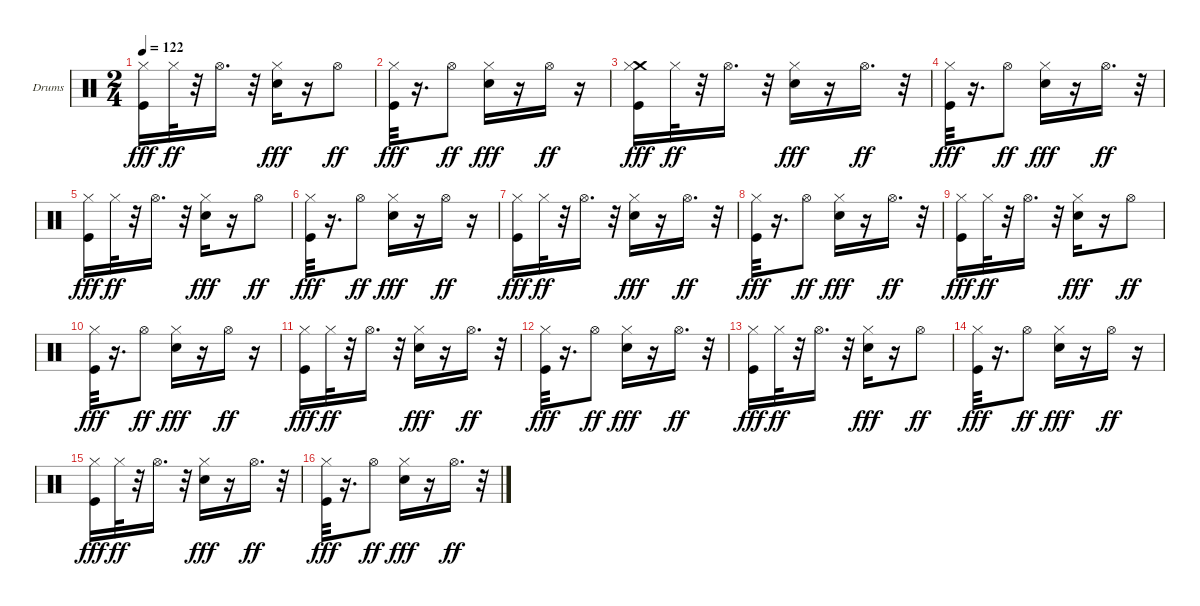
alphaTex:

\bracketExtendMode groupsimilarinstruments
\firstSystemTrackNameOrientation horizontal
\otherSystemsTrackNameOrientation horizontal
\track ("Ударные" "Drums") {instrument percussion}
\staff {score}
\articulation defaults
\ts (2 4)
\tempo 122
\clef neutral
\ks c
("Kick (hit)" "Hi-Hat (closed)").16{dy fff} "Hi-Hat (closed)".32{dy ff} r.32 "Hi-Hat (open)".16{d} r.32 ("Snare (hit) 2" "Hi-Hat (closed)").16{dy fff} r.16 "Hi-Hat (open)".8{dy ff} |
("Kick (hit)" "Hi-Hat (closed)").32{dy fff} r.16{d} "Hi-Hat (open)".8{dy ff} ("Snare (hit) 2" "Hi-Hat (closed)").16{dy fff} r.16 "Hi-Hat (open)".16{dy ff} r.16 |
("Kick (hit)" "Crash medium (hit)" "Hi-Hat (closed)").16{dy fff} "Hi-Hat (closed)".32{dy ff} r.32 "Hi-Hat (open)".16{d} r.32 ("Snare (hit) 2" "Hi-Hat (closed)").16{dy fff} r.16 "Hi-Hat (open)".16{d dy ff} r.32 |
("Kick (hit)" "Hi-Hat (closed)").32{dy fff} r.16{d} "Hi-Hat (open)".8{dy ff} ("Snare (hit) 2" "Hi-Hat (closed)").16{dy fff} r.16 "Hi-Hat (open)".16{d dy ff} r.32 |
("Kick (hit)" "Hi-Hat (closed)").16{dy fff} "Hi-Hat (closed)".32{dy ff} r.32 "Hi-Hat (open)".16{d} r.32 ("Snare (hit) 2" "Hi-Hat (closed)").16{dy fff} r.16 "Hi-Hat (open)".8{dy ff} |
("Kick (hit)" "Hi-Hat (closed)").32{dy fff} r.16{d} "Hi-Hat (open)".8{dy ff} ("Snare (hit) 2" "Hi-Hat (closed)").16{dy fff} r.16 "Hi-Hat (open)".16{dy ff} r.16 |
("Kick (hit)" "Hi-Hat (closed)").16{dy fff} "Hi-Hat (closed)".32{dy ff} r.32 "Hi-Hat (open)".16{d} r.32 ("Snare (hit) 2" "Hi-Hat (closed)").16{dy fff} r.16 "Hi-Hat (open)".16{d dy ff} r.32 |
("Kick (hit)" "Hi-Hat (closed)").32{dy fff} r.16{d} "Hi-Hat (open)".8{dy ff} ("Snare (hit) 2" "Hi-Hat (closed)").16{dy fff} r.16 "Hi-Hat (open)".16{d dy ff} r.32 |
("Kick (hit)" "Hi-Hat (closed)").16{dy fff} "Hi-Hat (closed)".32{dy ff} r.32 "Hi-Hat (open)".16{d} r.32 ("Snare (hit) 2" "Hi-Hat (closed)").16{dy fff} r.16 "Hi-Hat (open)".8{dy ff} |
("Kick (hit)" "Hi-Hat (closed)").32{dy fff} r.16{d} "Hi-Hat (open)".8{dy ff} ("Snare (hit) 2" "Hi-Hat (closed)").16{dy fff} r.16 "Hi-Hat (open)".16{dy ff} r.16 |
("Kick (hit)" "Hi-Hat (closed)").16{dy fff} "Hi-Hat (closed)".32{dy ff} r.32 "Hi-Hat (open)".16{d} r.32 ("Snare (hit) 2" "Hi-Hat (closed)").16{dy fff} r.16 "Hi-Hat (open)".16{d dy ff} r.32 |
("Kick (hit)" "Hi-Hat (closed)").32{dy fff} r.16{d} "Hi-Hat (open)".8{dy ff} ("Snare (hit) 2" "Hi-Hat (closed)").16{dy fff} r.16 "Hi-Hat (open)".16{d dy ff} r.32 |
("Kick (hit)" "Hi-Hat (closed)").16{dy fff} "Hi-Hat (closed)".32{dy ff} r.32 "Hi-Hat (open)".16{d} r.32 ("Snare (hit) 2" "Hi-Hat (closed)").16{dy fff} r.16 "Hi-Hat (open)".8{dy ff} |
("Kick (hit)" "Hi-Hat (closed)").32{dy fff} r.16{d} "Hi-Hat (open)".8{dy ff} ("Snare (hit) 2" "Hi-Hat (closed)").16{dy fff} r.16 "Hi-Hat (open)".16{dy ff} r.16 |
("Kick (hit)" "Hi-Hat (closed)").16{dy fff} "Hi-Hat (closed)".32{dy ff} r.32 "Hi-Hat (open)".16{d} r.32 ("Snare (hit) 2" "Hi-Hat (closed)").16{dy fff} r.16 "Hi-Hat (open)".16{d dy ff} r.32 |
("Kick (hit)" "Hi-Hat (closed)").32{dy fff} r.16{d} "Hi-Hat (open)".8{dy ff} ("Snare (hit) 2" "Hi-Hat (closed)").16{dy fff} r.16 "Hi-Hat (open)".16{d dy ff} r.32
